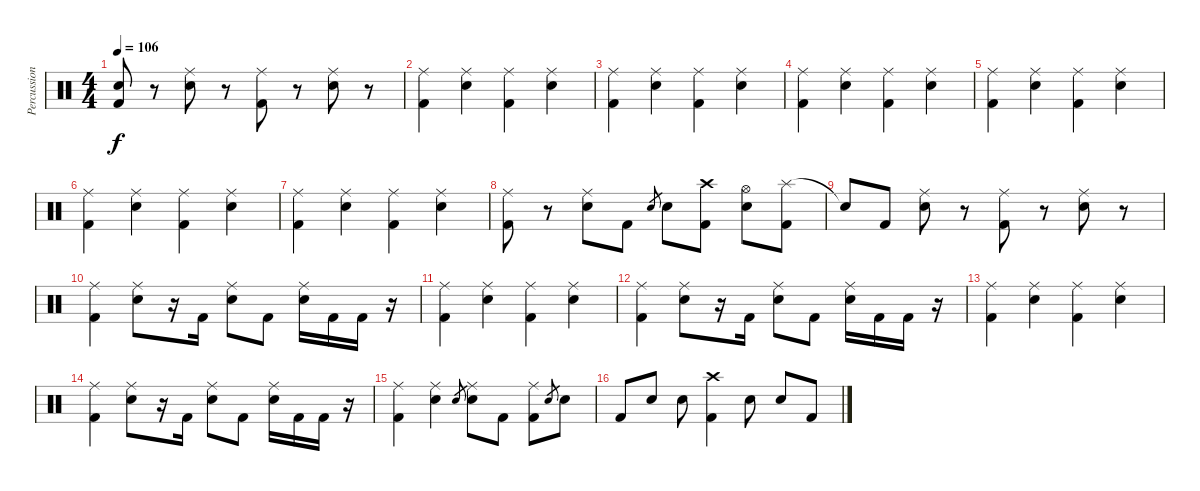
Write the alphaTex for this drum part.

\track ("Percussion" "Percussion") {instrument percussion}
\staff {score}
\articulation defaults
\ts (4 4)
\tempo 106
\clef neutral
\ks c
("Snare (hit)"{t} "Kick (hit) 2").8{dy f} r.8 ("Ride (middle)" "Snare (hit) 2").8 r.8 ("Ride (middle)" "Kick (hit) 2").8 r.8 ("Ride (middle)" "Snare (hit) 2").8 r.8 |
("Ride (middle)" "Kick (hit) 2").4 ("Ride (middle)" "Snare (hit) 2").4 ("Ride (middle)" "Kick (hit) 2").4 ("Ride (middle)" "Snare (hit) 2").4 |
("Ride (middle)" "Kick (hit) 2").4 ("Ride (middle)" "Snare (hit) 2").4 ("Ride (middle)" "Kick (hit) 2").4 ("Ride (middle)" "Snare (hit) 2").4 |
("Ride (middle)" "Kick (hit) 2").4 ("Ride (middle)" "Snare (hit) 2").4 ("Ride (middle)" "Kick (hit) 2").4 ("Ride (middle)" "Snare (hit) 2").4 |
("Ride (middle)" "Kick (hit) 2").4 ("Ride (middle)" "Snare (hit) 2").4 ("Ride (middle)" "Kick (hit) 2").4 ("Ride (middle)" "Snare (hit) 2").4 |
("Ride (middle)" "Kick (hit) 2").4 ("Ride (middle)" "Snare (hit) 2").4 ("Ride (middle)" "Kick (hit) 2").4 ("Ride (middle)" "Snare (hit) 2").4 |
("Ride (middle)" "Kick (hit) 2").4 ("Ride (middle)" "Snare (hit) 2").4 ("Ride (middle)" "Kick (hit) 2").4 ("Ride (middle)" "Snare (hit) 2").4 |
("Ride (middle)" "Kick (hit) 2").8 r.8 ("Ride (middle)" "Snare (hit) 2").8 "Kick (hit) 2".8 "Snare (hit) 2".8{gr} "Snare (hit) 2".8 ("Crash high (hit)" "Kick (hit) 2").8 ("Hi-Hat (open)" "Snare (hit) 2").8 ("Splash (hit)" "Kick (hit) 2").8 |
"Snare (hit)"{t}.8 "Kick (hit) 2".8 ("Ride (middle)" "Snare (hit) 2").8 r.8 ("Ride (middle)" "Kick (hit) 2").8 r.8 ("Ride (middle)" "Snare (hit) 2").8 r.8 |
("Ride (middle)" "Kick (hit) 2").4 ("Ride (middle)" "Snare (hit) 2").8 r.16 "Kick (hit) 2".16 ("Ride (middle)" "Snare (hit) 2").8 "Kick (hit) 2".8 ("Ride (middle)" "Snare (hit) 2").16 "Kick (hit) 2".16 "Kick (hit) 2".16 r.16 |
("Ride (middle)" "Kick (hit) 2").4 ("Ride (middle)" "Snare (hit) 2").4 ("Ride (middle)" "Kick (hit) 2").4 ("Ride (middle)" "Snare (hit) 2").4 |
("Ride (middle)" "Kick (hit) 2").4 ("Ride (middle)" "Snare (hit) 2").8 r.16 "Kick (hit) 2".16 ("Ride (middle)" "Snare (hit) 2").8 "Kick (hit) 2".8 ("Ride (middle)" "Snare (hit) 2").16 "Kick (hit) 2".16 "Kick (hit) 2".16 r.16 |
("Ride (middle)" "Kick (hit) 2").4 ("Ride (middle)" "Snare (hit) 2").4 ("Ride (middle)" "Kick (hit) 2").4 ("Ride (middle)" "Snare (hit) 2").4 |
("Ride (middle)" "Kick (hit) 2").4 ("Ride (middle)" "Snare (hit) 2").8 r.16 "Kick (hit) 2".16 ("Ride (middle)" "Snare (hit) 2").8 "Kick (hit) 2".8 ("Ride (middle)" "Snare (hit) 2").16 "Kick (hit) 2".16 "Kick (hit) 2".16 r.16 |
("Ride (middle)" "Kick (hit) 2").4 ("Ride (middle)" "Snare (hit) 2").4 "Snare (hit) 2".8{gr} ("Ride (middle)" "Snare (hit) 2").8 "Kick (hit) 2".8 ("Ride (middle)" "Kick (hit) 2").8 "Snare (hit) 2".8{gr} "Snare (hit) 2".8 |
"Kick (hit) 2".8 "Snare (hit) 2".8 "Snare (hit) 2".8 ("Crash high (hit)" "Kick (hit) 2").4 "Snare (hit) 2".8 "Snare (hit) 2".8 "Kick (hit) 2".8
